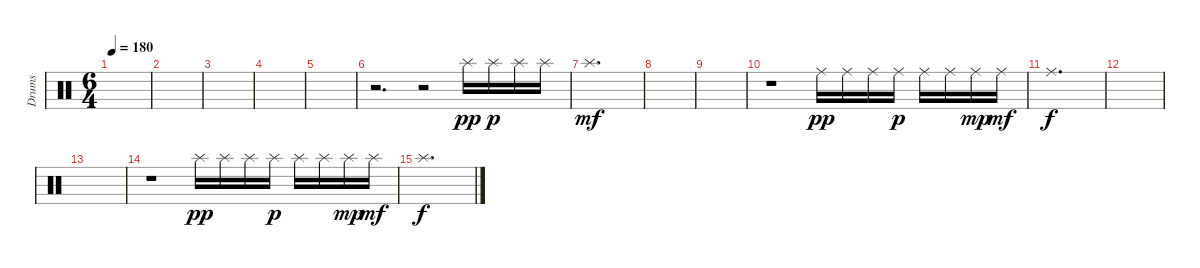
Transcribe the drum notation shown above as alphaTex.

\track ("Drums" "Drums") {instrument percussion}
\staff {score}
\articulation defaults
\ts (6 4)
\tempo 180
\clef neutral
\ks c
|
|
|
|
|
r.2{d} r.2 "Splash (hit)".16{dy pp} "Splash (hit)".16{dy p} "Splash (hit)".16 "Splash (hit)".16 |
"Splash (hit)".1{d dy mf} |
|
|
r.1 "Ride (middle)".16{dy pp} "Ride (middle)".16 "Ride (middle)".16 "Ride (middle)".16{dy p} "Ride (middle)".16 "Ride (middle)".16 "Ride (middle)".16{dy mp} "Ride (middle)".16{dy mf} |
"Ride (middle)".1{d dy f} |
|
|
r.1 "Splash (hit)".16{dy pp} "Splash (hit)".16 "Splash (hit)".16 "Splash (hit)".16{dy p} "Splash (hit)".16 "Splash (hit)".16 "Splash (hit)".16{dy mp} "Splash (hit)".16{dy mf} |
"Splash (hit)".1{d dy f}
